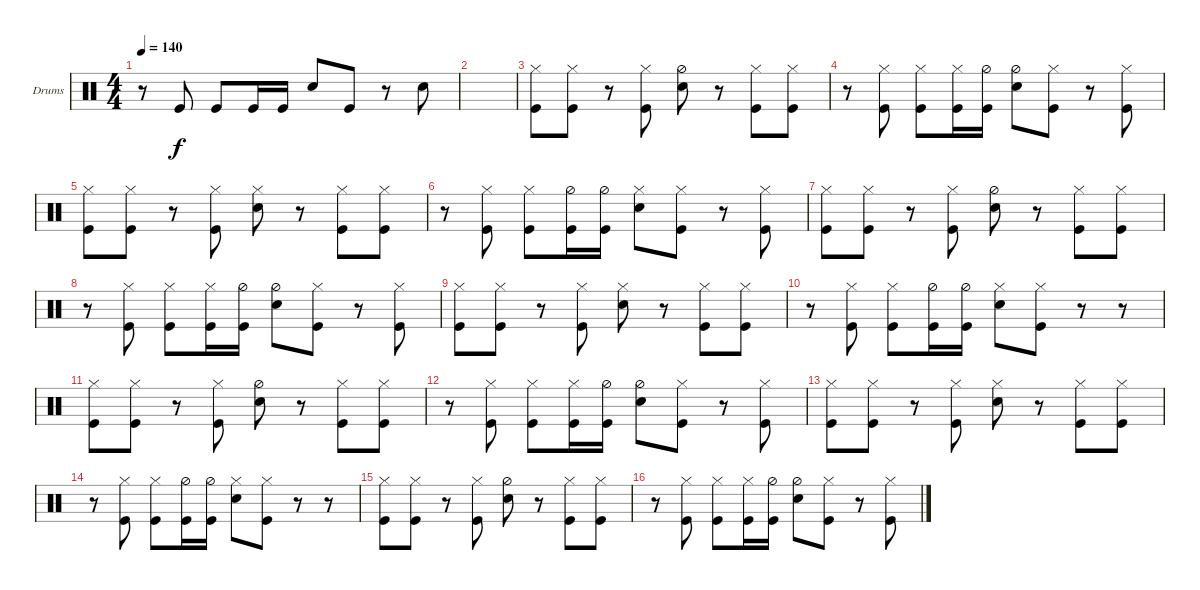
\defaultSystemsLayout 4
\bracketExtendMode groupsimilarinstruments
\firstSystemTrackNameOrientation horizontal
\otherSystemsTrackNameOrientation horizontal
\track ("Drumkit" "Drums") {instrument percussion}
\staff {score}
\articulation defaults
\ts (4 4)
\tempo 140
\clef neutral
\ks c
r.8{dy f} "Kick (hit)".8 "Kick (hit)".8 "Kick (hit)".16 "Kick (hit)".16 "Snare (hit) 2".8 "Kick (hit)".8 r.8 "Snare (hit) 2".8 |
|
("Hi-Hat (closed)" "Kick (hit)").8 ("Hi-Hat (closed)" "Kick (hit)").8 r.8 ("Hi-Hat (closed)" "Kick (hit)").8 ("Hi-Hat (half)" "Snare (hit) 2").8 r.8 ("Hi-Hat (closed)" "Kick (hit)").8 ("Hi-Hat (closed)" "Kick (hit)").8 |
r.8 ("Hi-Hat (closed)" "Kick (hit)").8 ("Hi-Hat (closed)" "Kick (hit)").8 ("Hi-Hat (closed)" "Kick (hit)").16 ("Hi-Hat (half)" "Kick (hit)").16 ("Hi-Hat (half)" "Snare (hit) 2").8 ("Hi-Hat (closed)" "Kick (hit)").8 r.8 ("Hi-Hat (closed)" "Kick (hit)").8 |
("Hi-Hat (closed)" "Kick (hit)").8 ("Hi-Hat (closed)" "Kick (hit)").8 r.8 ("Hi-Hat (closed)" "Kick (hit)").8 ("Hi-Hat (closed)" "Snare (hit) 2").8 r.8 ("Hi-Hat (closed)" "Kick (hit)").8 ("Hi-Hat (closed)" "Kick (hit)").8 |
r.8 ("Hi-Hat (closed)" "Kick (hit)").8 ("Hi-Hat (closed)" "Kick (hit)").8 ("Hi-Hat (half)" "Kick (hit)").16 ("Hi-Hat (half)" "Kick (hit)").16 ("Hi-Hat (closed)" "Snare (hit) 2").8 ("Hi-Hat (closed)" "Kick (hit)").8 r.8 ("Hi-Hat (closed)" "Kick (hit)").8 |
("Hi-Hat (closed)" "Kick (hit)").8 ("Hi-Hat (closed)" "Kick (hit)").8 r.8 ("Hi-Hat (closed)" "Kick (hit)").8 ("Hi-Hat (half)" "Snare (hit) 2").8 r.8 ("Hi-Hat (closed)" "Kick (hit)").8 ("Hi-Hat (closed)" "Kick (hit)").8 |
r.8 ("Hi-Hat (closed)" "Kick (hit)").8 ("Hi-Hat (closed)" "Kick (hit)").8 ("Hi-Hat (closed)" "Kick (hit)").16 ("Hi-Hat (half)" "Kick (hit)").16 ("Hi-Hat (half)" "Snare (hit) 2").8 ("Hi-Hat (closed)" "Kick (hit)").8 r.8 ("Hi-Hat (closed)" "Kick (hit)").8 |
("Hi-Hat (closed)" "Kick (hit)").8 ("Hi-Hat (closed)" "Kick (hit)").8 r.8 ("Hi-Hat (closed)" "Kick (hit)").8 ("Hi-Hat (closed)" "Snare (hit) 2").8 r.8 ("Hi-Hat (closed)" "Kick (hit)").8 ("Hi-Hat (closed)" "Kick (hit)").8 |
r.8 ("Hi-Hat (closed)" "Kick (hit)").8 ("Hi-Hat (closed)" "Kick (hit)").8 ("Hi-Hat (half)" "Kick (hit)").16 ("Hi-Hat (half)" "Kick (hit)").16 ("Hi-Hat (closed)" "Snare (hit) 2").8 ("Hi-Hat (closed)" "Kick (hit)").8 r.8 r.8 |
("Hi-Hat (closed)" "Kick (hit)").8 ("Hi-Hat (closed)" "Kick (hit)").8 r.8 ("Hi-Hat (closed)" "Kick (hit)").8 ("Hi-Hat (half)" "Snare (hit) 2").8 r.8 ("Hi-Hat (closed)" "Kick (hit)").8 ("Hi-Hat (closed)" "Kick (hit)").8 |
r.8 ("Hi-Hat (closed)" "Kick (hit)").8 ("Hi-Hat (closed)" "Kick (hit)").8 ("Hi-Hat (closed)" "Kick (hit)").16 ("Hi-Hat (half)" "Kick (hit)").16 ("Hi-Hat (half)" "Snare (hit) 2").8 ("Hi-Hat (closed)" "Kick (hit)").8 r.8 ("Hi-Hat (closed)" "Kick (hit)").8 |
("Hi-Hat (closed)" "Kick (hit)").8 ("Hi-Hat (closed)" "Kick (hit)").8 r.8 ("Hi-Hat (closed)" "Kick (hit)").8 ("Hi-Hat (closed)" "Snare (hit) 2").8 r.8 ("Hi-Hat (closed)" "Kick (hit)").8 ("Hi-Hat (closed)" "Kick (hit)").8 |
r.8 ("Hi-Hat (closed)" "Kick (hit)").8 ("Hi-Hat (closed)" "Kick (hit)").8 ("Hi-Hat (half)" "Kick (hit)").16 ("Hi-Hat (half)" "Kick (hit)").16 ("Hi-Hat (closed)" "Snare (hit) 2").8 ("Hi-Hat (closed)" "Kick (hit)").8 r.8 r.8 |
("Hi-Hat (closed)" "Kick (hit)").8 ("Hi-Hat (closed)" "Kick (hit)").8 r.8 ("Hi-Hat (closed)" "Kick (hit)").8 ("Hi-Hat (half)" "Snare (hit) 2").8 r.8 ("Hi-Hat (closed)" "Kick (hit)").8 ("Hi-Hat (closed)" "Kick (hit)").8 |
r.8 ("Hi-Hat (closed)" "Kick (hit)").8 ("Hi-Hat (closed)" "Kick (hit)").8 ("Hi-Hat (closed)" "Kick (hit)").16 ("Hi-Hat (half)" "Kick (hit)").16 ("Hi-Hat (half)" "Snare (hit) 2").8 ("Hi-Hat (closed)" "Kick (hit)").8 r.8 ("Hi-Hat (closed)" "Kick (hit)").8
